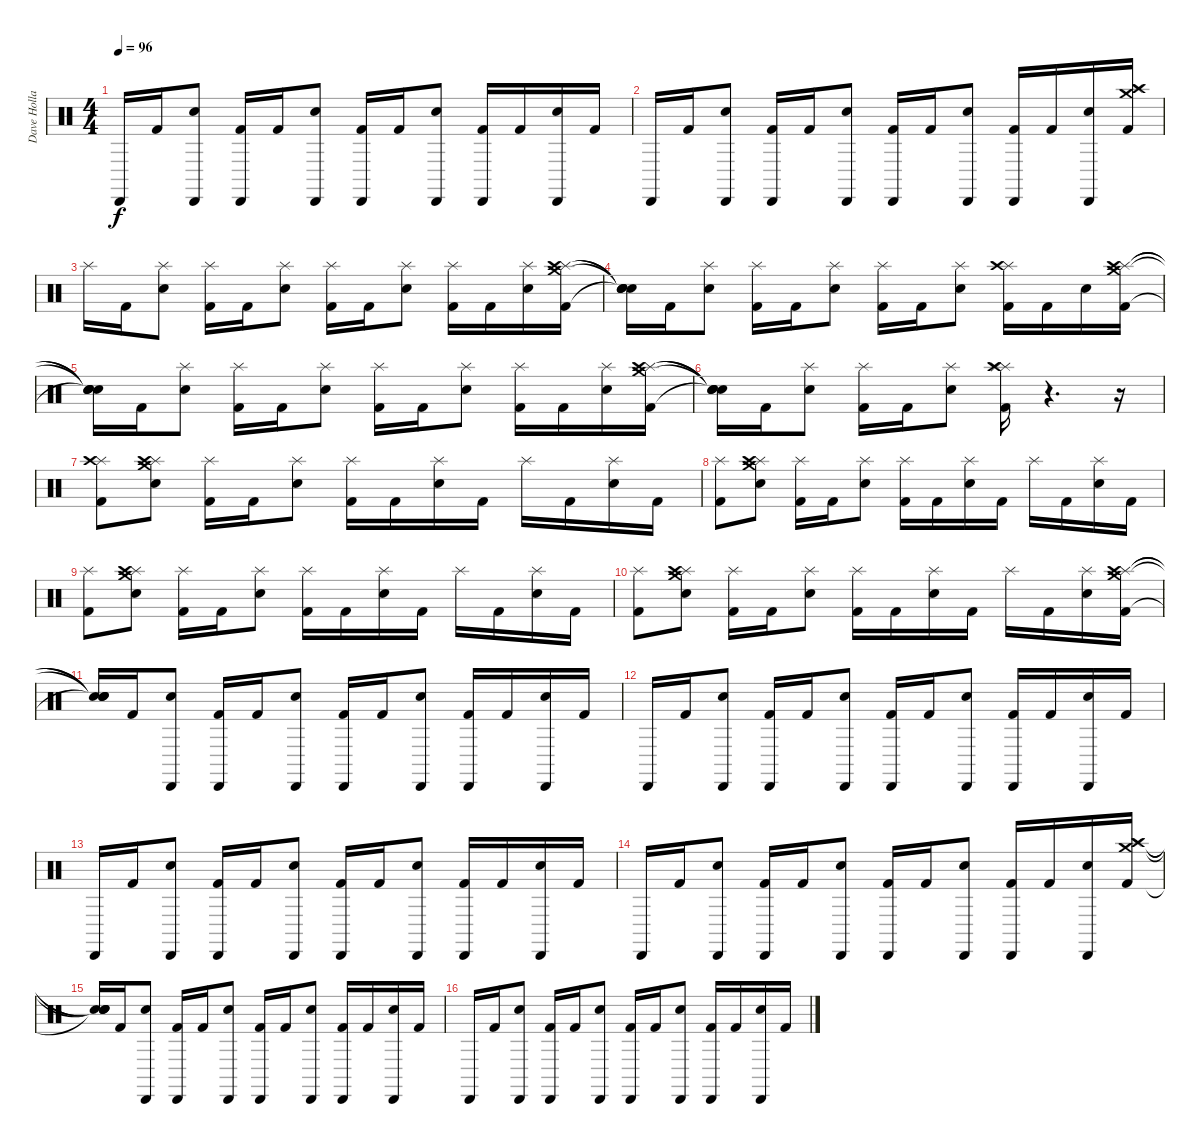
\track ("Dave Holland" "Dave Holla") {instrument percussion}
\staff {score}
\articulation defaults
\ts (4 4)
\tempo 96
\clef neutral
\ks c "Cabasa (hit)".16{dy f} "Kick (hit) 2".16
("Cabasa (hit)" "Snare (hit) 2").8 ("Cabasa (hit)" "Kick (hit) 2").16 "Kick (hit) 2".16 ("Cabasa (hit)" "Snare (hit) 2").8 ("Cabasa (hit)" "Kick (hit) 2").16 "Kick (hit) 2".16 ("Cabasa (hit)" "Snare (hit) 2").8 ("Cabasa (hit)" "Kick (hit) 2").16 "Kick (hit) 2".16 ("Cabasa (hit)" "Snare (hit) 2").16 "Kick (hit) 2".16 |
"Cabasa (hit)".16 "Kick (hit) 2".16 ("Cabasa (hit)" "Snare (hit) 2").8 ("Cabasa (hit)" "Kick (hit) 2").16 "Kick (hit) 2".16 ("Cabasa (hit)" "Snare (hit) 2").8 ("Cabasa (hit)" "Kick (hit) 2").16 "Kick (hit) 2".16 ("Cabasa (hit)" "Snare (hit) 2").8 ("Cabasa (hit)" "Kick (hit) 2").16 "Kick (hit) 2".16 ("Cabasa (hit)" "Snare (hit) 2").16 ("Crash medium (hit)" "Splash (hit)" "Crash high (hit)" "Kick (hit) 2").16 |
"Splash (hit)".16 "Kick (hit) 2".16 ("Splash (hit)" "Snare (hit) 2").8 ("Splash (hit)" "Kick (hit) 2").16 "Kick (hit) 2".16 ("Splash (hit)" "Snare (hit) 2").8 ("Splash (hit)" "Kick (hit) 2").16 "Kick (hit) 2".16 ("Splash (hit)" "Snare (hit) 2").8 ("Splash (hit)" "Kick (hit) 2").16 "Kick (hit) 2".16 ("Splash (hit)" "Snare (hit) 2").16 ("Crash medium (hit)" "Splash (hit)" "Crash high (hit)" "Kick (hit) 2").16 |
("Snare (hit)"{t} "Snare (hit)"{t} "Snare (hit)"{t} "Snare (hit)"{t}).16 "Kick (hit) 2".16 ("Splash (hit)" "Snare (hit) 2").8 ("Splash (hit)" "Kick (hit) 2").16 "Kick (hit) 2".16 ("Splash (hit)" "Snare (hit) 2").8 ("Splash (hit)" "Kick (hit) 2").16 "Kick (hit) 2".16 ("Splash (hit)" "Snare (hit) 2").8 ("Splash (hit)" "Crash high (hit)" "Kick (hit) 2").16 "Kick (hit) 2".16 "Snare (hit) 2".16 ("Crash medium (hit)" "Splash (hit)" "Crash high (hit)" "Kick (hit) 2").16 |
("Snare (hit)"{t} "Snare (hit)"{t} "Snare (hit)"{t} "Snare (hit)"{t}).16 "Kick (hit) 2".16 ("Splash (hit)" "Snare (hit) 2").8 ("Splash (hit)" "Kick (hit) 2").16 "Kick (hit) 2".16 ("Splash (hit)" "Snare (hit) 2").8 ("Splash (hit)" "Kick (hit) 2").16 "Kick (hit) 2".16 ("Splash (hit)" "Snare (hit) 2").8 ("Splash (hit)" "Kick (hit) 2").16 "Kick (hit) 2".16 ("Splash (hit)" "Snare (hit) 2").16 ("Crash medium (hit)" "Splash (hit)" "Crash high (hit)" "Kick (hit) 2").16 |
("Snare (hit)"{t} "Snare (hit)"{t} "Snare (hit)"{t} "Snare (hit)"{t}).16 "Kick (hit) 2".16 ("Splash (hit)" "Snare (hit) 2").8 ("Splash (hit)" "Kick (hit) 2").16 "Kick (hit) 2".16 ("Splash (hit)" "Snare (hit) 2").8 ("Splash (hit)" "Splash (hit)" "Crash high (hit)" "Kick (hit) 2").16 r.4{d} r.16 |
("Splash (hit)" "Crash high (hit)" "Kick (hit) 2").8 ("Crash medium (hit)" "Splash (hit)" "Crash high (hit)" "Snare (hit) 2").8 ("Splash (hit)" "Kick (hit) 2").16 "Kick (hit) 2".16 ("Splash (hit)" "Snare (hit) 2").8 ("Splash (hit)" "Kick (hit) 2").16 "Kick (hit) 2".16 ("Splash (hit)" "Snare (hit) 2").16 "Kick (hit) 2".16 "Splash (hit)".16 "Kick (hit) 2".16 ("Splash (hit)" "Snare (hit) 2").16 "Kick (hit) 2".16 |
("Splash (hit)" "Kick (hit) 2").8 ("Crash medium (hit)" "Splash (hit)" "Crash high (hit)" "Snare (hit) 2").8 ("Splash (hit)" "Kick (hit) 2").16 "Kick (hit) 2".16 ("Splash (hit)" "Snare (hit) 2").8 ("Splash (hit)" "Kick (hit) 2").16 "Kick (hit) 2".16 ("Splash (hit)" "Snare (hit) 2").16 "Kick (hit) 2".16 "Splash (hit)".16 "Kick (hit) 2".16 ("Splash (hit)" "Snare (hit) 2").16 "Kick (hit) 2".16 |
("Splash (hit)" "Kick (hit) 2").8 ("Crash medium (hit)" "Splash (hit)" "Crash high (hit)" "Snare (hit) 2").8 ("Splash (hit)" "Kick (hit) 2").16 "Kick (hit) 2".16 ("Splash (hit)" "Snare (hit) 2").8 ("Splash (hit)" "Kick (hit) 2").16 "Kick (hit) 2".16 ("Splash (hit)" "Snare (hit) 2").16 "Kick (hit) 2".16 "Splash (hit)".16 "Kick (hit) 2".16 ("Splash (hit)" "Snare (hit) 2").16 "Kick (hit) 2".16 |
("Splash (hit)" "Kick (hit) 2").8 ("Crash medium (hit)" "Splash (hit)" "Crash high (hit)" "Snare (hit) 2").8 ("Splash (hit)" "Kick (hit) 2").16 "Kick (hit) 2".16 ("Splash (hit)" "Snare (hit) 2").8 ("Splash (hit)" "Kick (hit) 2").16 "Kick (hit) 2".16 ("Splash (hit)" "Snare (hit) 2").16 "Kick (hit) 2".16 "Splash (hit)".16 "Kick (hit) 2".16 ("Splash (hit)" "Snare (hit) 2").16 ("Crash medium (hit)" "Splash (hit)" "Crash high (hit)" "Kick (hit) 2").16 |
("Snare (hit)"{t} "Snare (hit)"{t} "Snare (hit)"{t} "Snare (hit)"{t}).16 "Kick (hit) 2".16 ("Cabasa (hit)" "Snare (hit) 2").8 ("Cabasa (hit)" "Kick (hit) 2").16 "Kick (hit) 2".16 ("Cabasa (hit)" "Snare (hit) 2").8 ("Cabasa (hit)" "Kick (hit) 2").16 "Kick (hit) 2".16 ("Cabasa (hit)" "Snare (hit) 2").8 ("Cabasa (hit)" "Kick (hit) 2").16 "Kick (hit) 2".16 ("Cabasa (hit)" "Snare (hit) 2").16 "Kick (hit) 2".16 |
"Cabasa (hit)".16 "Kick (hit) 2".16 ("Cabasa (hit)" "Snare (hit) 2").8 ("Cabasa (hit)" "Kick (hit) 2").16 "Kick (hit) 2".16 ("Cabasa (hit)" "Snare (hit) 2").8 ("Cabasa (hit)" "Kick (hit) 2").16 "Kick (hit) 2".16 ("Cabasa (hit)" "Snare (hit) 2").8 ("Cabasa (hit)" "Kick (hit) 2").16 "Kick (hit) 2".16 ("Cabasa (hit)" "Snare (hit) 2").16 "Kick (hit) 2".16 |
"Cabasa (hit)".16 "Kick (hit) 2".16 ("Cabasa (hit)" "Snare (hit) 2").8 ("Cabasa (hit)" "Kick (hit) 2").16 "Kick (hit) 2".16 ("Cabasa (hit)" "Snare (hit) 2").8 ("Cabasa (hit)" "Kick (hit) 2").16 "Kick (hit) 2".16 ("Cabasa (hit)" "Snare (hit) 2").8 ("Cabasa (hit)" "Kick (hit) 2").16 "Kick (hit) 2".16 ("Cabasa (hit)" "Snare (hit) 2").16 "Kick (hit) 2".16 |
"Cabasa (hit)".16 "Kick (hit) 2".16 ("Cabasa (hit)" "Snare (hit) 2").8 ("Cabasa (hit)" "Kick (hit) 2").16 "Kick (hit) 2".16 ("Cabasa (hit)" "Snare (hit) 2").8 ("Cabasa (hit)" "Kick (hit) 2").16 "Kick (hit) 2".16 ("Cabasa (hit)" "Snare (hit) 2").8 ("Cabasa (hit)" "Kick (hit) 2").16 "Kick (hit) 2".16 ("Cabasa (hit)" "Snare (hit) 2").16 ("Crash medium (hit)" "Splash (hit)" "Crash high (hit)" "Kick (hit) 2").16 |
("Snare (hit)"{t} "Snare (hit)"{t} "Snare (hit)"{t} "Snare (hit)"{t}).16 "Kick (hit) 2".16 ("Cabasa (hit)" "Snare (hit) 2").8 ("Cabasa (hit)" "Kick (hit) 2").16 "Kick (hit) 2".16 ("Cabasa (hit)" "Snare (hit) 2").8 ("Cabasa (hit)" "Kick (hit) 2").16 "Kick (hit) 2".16 ("Cabasa (hit)" "Snare (hit) 2").8 ("Cabasa (hit)" "Kick (hit) 2").16 "Kick (hit) 2".16 ("Cabasa (hit)" "Snare (hit) 2").16 "Kick (hit) 2".16 |
"Cabasa (hit)".16 "Kick (hit) 2".16 ("Cabasa (hit)" "Snare (hit) 2").8 ("Cabasa (hit)" "Kick (hit) 2").16 "Kick (hit) 2".16 ("Cabasa (hit)" "Snare (hit) 2").8 ("Cabasa (hit)" "Kick (hit) 2").16 "Kick (hit) 2".16 ("Cabasa (hit)" "Snare (hit) 2").8 ("Cabasa (hit)" "Kick (hit) 2").16 "Kick (hit) 2".16 ("Cabasa (hit)" "Snare (hit) 2").16 "Kick (hit) 2".16
